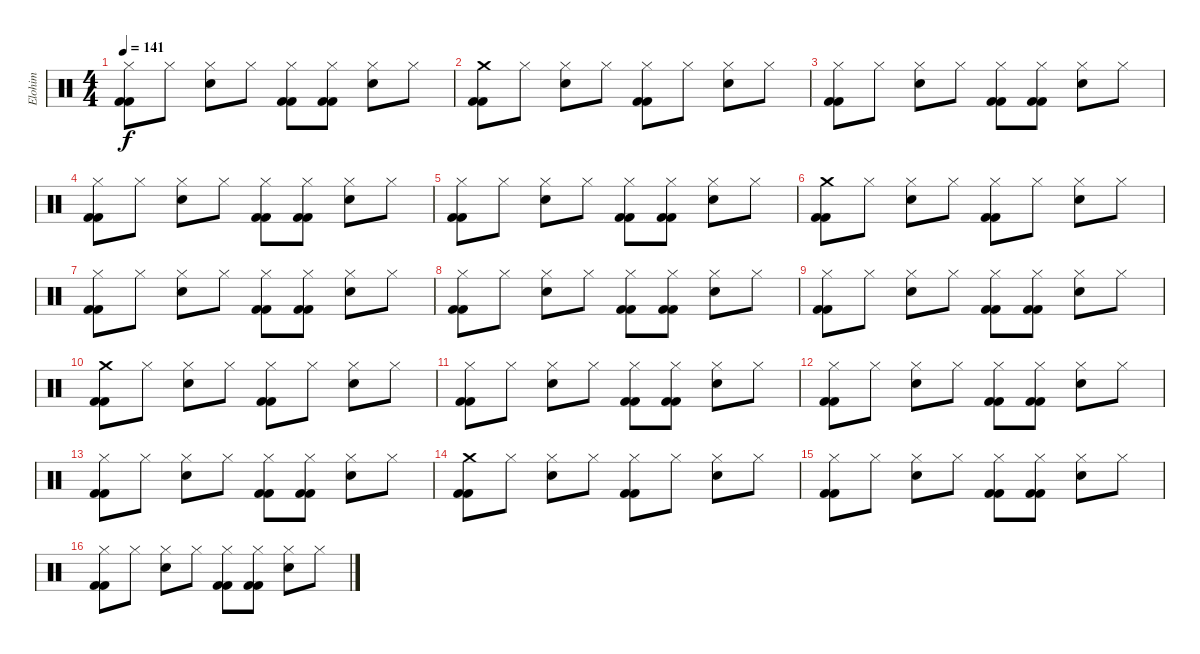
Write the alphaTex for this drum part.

\track ("Elohim" "Elohim") {instrument percussion}
\staff {score}
\articulation defaults
\ts (4 4)
\tempo 141
\clef neutral
\ks c
("Hi-Hat (closed)" "Kick (hit) 2" "Kick (hit) 2").8{dy f} "Hi-Hat (closed)".8 ("Hi-Hat (closed)" "Snare (hit) 2").8 "Hi-Hat (closed)".8 ("Hi-Hat (closed)" "Kick (hit) 2" "Kick (hit) 2").8 ("Hi-Hat (closed)" "Kick (hit) 2" "Kick (hit) 2").8 ("Hi-Hat (closed)" "Snare (hit) 2").8 "Hi-Hat (closed)".8 |
("Crash medium (hit)" "Kick (hit) 2" "Kick (hit) 2").8 "Hi-Hat (closed)".8 ("Hi-Hat (closed)" "Snare (hit) 2").8 "Hi-Hat (closed)".8 ("Hi-Hat (closed)" "Kick (hit) 2" "Kick (hit) 2").8 "Hi-Hat (closed)".8 ("Hi-Hat (closed)" "Snare (hit) 2").8 "Hi-Hat (closed)".8 |
("Hi-Hat (closed)" "Kick (hit) 2" "Kick (hit) 2").8 "Hi-Hat (closed)".8 ("Hi-Hat (closed)" "Snare (hit) 2").8 "Hi-Hat (closed)".8 ("Hi-Hat (closed)" "Kick (hit) 2" "Kick (hit) 2").8 ("Hi-Hat (closed)" "Kick (hit) 2" "Kick (hit) 2").8 ("Hi-Hat (closed)" "Snare (hit) 2").8 "Hi-Hat (closed)".8 |
("Hi-Hat (closed)" "Kick (hit) 2" "Kick (hit) 2").8 "Hi-Hat (closed)".8 ("Hi-Hat (closed)" "Snare (hit) 2").8 "Hi-Hat (closed)".8 ("Hi-Hat (closed)" "Kick (hit) 2" "Kick (hit) 2").8 ("Hi-Hat (closed)" "Kick (hit) 2" "Kick (hit) 2").8 ("Hi-Hat (closed)" "Snare (hit) 2").8 "Hi-Hat (closed)".8 |
("Hi-Hat (closed)" "Kick (hit) 2" "Kick (hit) 2").8 "Hi-Hat (closed)".8 ("Hi-Hat (closed)" "Snare (hit) 2").8 "Hi-Hat (closed)".8 ("Hi-Hat (closed)" "Kick (hit) 2" "Kick (hit) 2").8 ("Hi-Hat (closed)" "Kick (hit) 2" "Kick (hit) 2").8 ("Hi-Hat (closed)" "Snare (hit) 2").8 "Hi-Hat (closed)".8 |
("Crash medium (hit)" "Kick (hit) 2" "Kick (hit) 2").8 "Hi-Hat (closed)".8 ("Hi-Hat (closed)" "Snare (hit) 2").8 "Hi-Hat (closed)".8 ("Hi-Hat (closed)" "Kick (hit) 2" "Kick (hit) 2").8 "Hi-Hat (closed)".8 ("Hi-Hat (closed)" "Snare (hit) 2").8 "Hi-Hat (closed)".8 |
("Hi-Hat (closed)" "Kick (hit) 2" "Kick (hit) 2").8 "Hi-Hat (closed)".8 ("Hi-Hat (closed)" "Snare (hit) 2").8 "Hi-Hat (closed)".8 ("Hi-Hat (closed)" "Kick (hit) 2" "Kick (hit) 2").8 ("Hi-Hat (closed)" "Kick (hit) 2" "Kick (hit) 2").8 ("Hi-Hat (closed)" "Snare (hit) 2").8 "Hi-Hat (closed)".8 |
("Hi-Hat (closed)" "Kick (hit) 2" "Kick (hit) 2").8 "Hi-Hat (closed)".8 ("Hi-Hat (closed)" "Snare (hit) 2").8 "Hi-Hat (closed)".8 ("Hi-Hat (closed)" "Kick (hit) 2" "Kick (hit) 2").8 ("Hi-Hat (closed)" "Kick (hit) 2" "Kick (hit) 2").8 ("Hi-Hat (closed)" "Snare (hit) 2").8 "Hi-Hat (closed)".8 |
("Hi-Hat (closed)" "Kick (hit) 2" "Kick (hit) 2").8 "Hi-Hat (closed)".8 ("Hi-Hat (closed)" "Snare (hit) 2").8 "Hi-Hat (closed)".8 ("Hi-Hat (closed)" "Kick (hit) 2" "Kick (hit) 2").8 ("Hi-Hat (closed)" "Kick (hit) 2" "Kick (hit) 2").8 ("Hi-Hat (closed)" "Snare (hit) 2").8 "Hi-Hat (closed)".8 |
("Crash medium (hit)" "Kick (hit) 2" "Kick (hit) 2").8 "Hi-Hat (closed)".8 ("Hi-Hat (closed)" "Snare (hit) 2").8 "Hi-Hat (closed)".8 ("Hi-Hat (closed)" "Kick (hit) 2" "Kick (hit) 2").8 "Hi-Hat (closed)".8 ("Hi-Hat (closed)" "Snare (hit) 2").8 "Hi-Hat (closed)".8 |
("Hi-Hat (closed)" "Kick (hit) 2" "Kick (hit) 2").8 "Hi-Hat (closed)".8 ("Hi-Hat (closed)" "Snare (hit) 2").8 "Hi-Hat (closed)".8 ("Hi-Hat (closed)" "Kick (hit) 2" "Kick (hit) 2").8 ("Hi-Hat (closed)" "Kick (hit) 2" "Kick (hit) 2").8 ("Hi-Hat (closed)" "Snare (hit) 2").8 "Hi-Hat (closed)".8 |
("Hi-Hat (closed)" "Kick (hit) 2" "Kick (hit) 2").8 "Hi-Hat (closed)".8 ("Hi-Hat (closed)" "Snare (hit) 2").8 "Hi-Hat (closed)".8 ("Hi-Hat (closed)" "Kick (hit) 2" "Kick (hit) 2").8 ("Hi-Hat (closed)" "Kick (hit) 2" "Kick (hit) 2").8 ("Hi-Hat (closed)" "Snare (hit) 2").8 "Hi-Hat (closed)".8 |
("Hi-Hat (closed)" "Kick (hit) 2" "Kick (hit) 2").8 "Hi-Hat (closed)".8 ("Hi-Hat (closed)" "Snare (hit) 2").8 "Hi-Hat (closed)".8 ("Hi-Hat (closed)" "Kick (hit) 2" "Kick (hit) 2").8 ("Hi-Hat (closed)" "Kick (hit) 2" "Kick (hit) 2").8 ("Hi-Hat (closed)" "Snare (hit) 2").8 "Hi-Hat (closed)".8 |
("Crash medium (hit)" "Kick (hit) 2" "Kick (hit) 2").8 "Hi-Hat (closed)".8 ("Hi-Hat (closed)" "Snare (hit) 2").8 "Hi-Hat (closed)".8 ("Hi-Hat (closed)" "Kick (hit) 2" "Kick (hit) 2").8 "Hi-Hat (closed)".8 ("Hi-Hat (closed)" "Snare (hit) 2").8 "Hi-Hat (closed)".8 |
("Hi-Hat (closed)" "Kick (hit) 2" "Kick (hit) 2").8 "Hi-Hat (closed)".8 ("Hi-Hat (closed)" "Snare (hit) 2").8 "Hi-Hat (closed)".8 ("Hi-Hat (closed)" "Kick (hit) 2" "Kick (hit) 2").8 ("Hi-Hat (closed)" "Kick (hit) 2" "Kick (hit) 2").8 ("Hi-Hat (closed)" "Snare (hit) 2").8 "Hi-Hat (closed)".8 |
("Hi-Hat (closed)" "Kick (hit) 2" "Kick (hit) 2").8 "Hi-Hat (closed)".8 ("Hi-Hat (closed)" "Snare (hit) 2").8 "Hi-Hat (closed)".8 ("Hi-Hat (closed)" "Kick (hit) 2" "Kick (hit) 2").8 ("Hi-Hat (closed)" "Kick (hit) 2" "Kick (hit) 2").8 ("Hi-Hat (closed)" "Snare (hit) 2").8 "Hi-Hat (closed)".8
